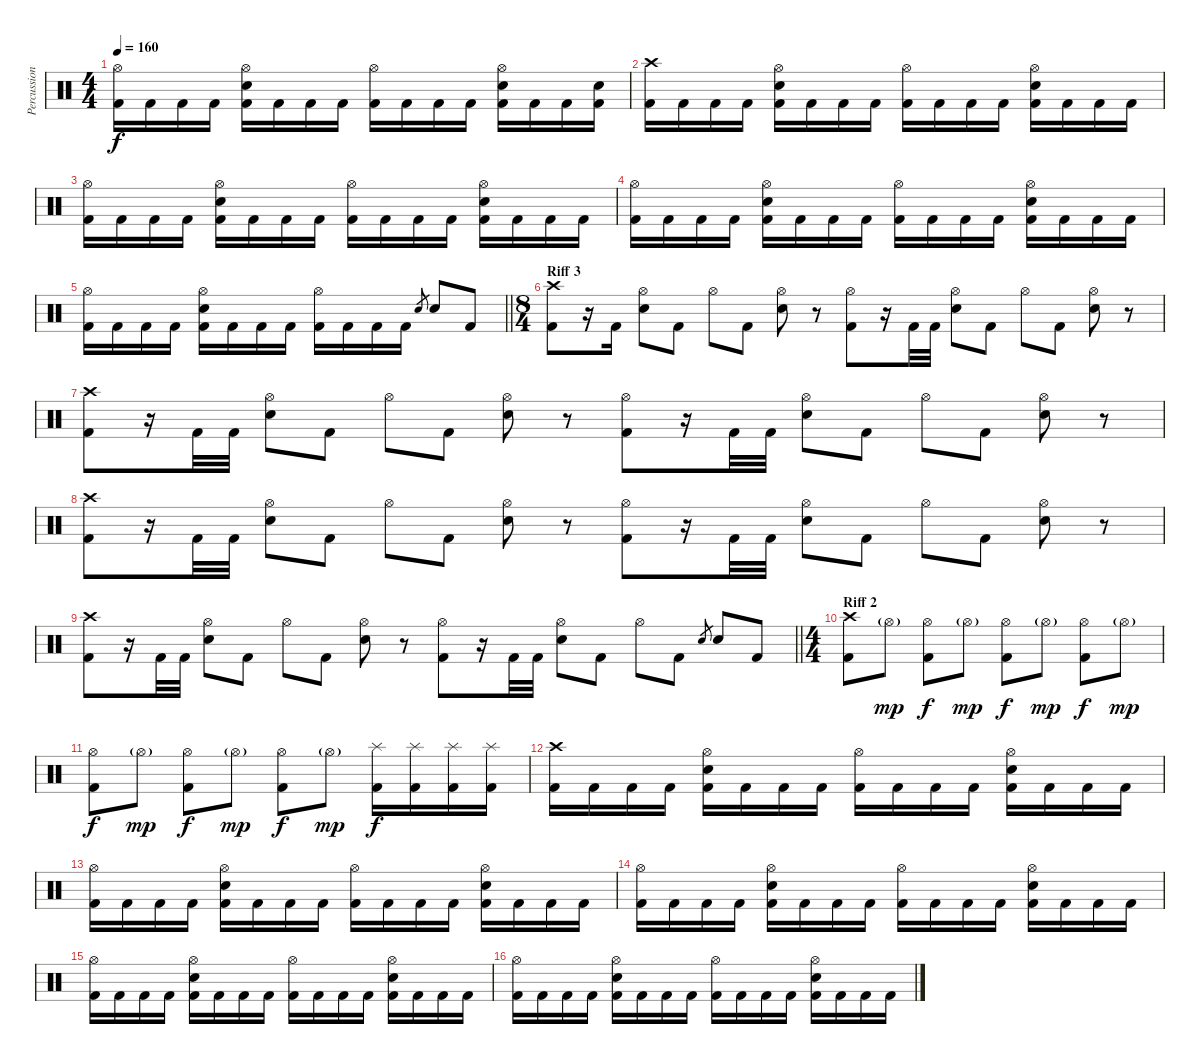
\track ("Percussion" "Percussion") {instrument percussion}
\staff {score}
\articulation defaults
\ts (4 4)
\tempo 160
\clef neutral
\ks c
("Hi-Hat (open)" "Kick (hit) 2").16{dy f} "Kick (hit) 2".16 "Kick (hit) 2".16 "Kick (hit) 2".16 ("Hi-Hat (open)" "Snare (hit) 2" "Kick (hit) 2").16 "Kick (hit) 2".16 "Kick (hit) 2".16 "Kick (hit) 2".16 ("Hi-Hat (open)" "Kick (hit) 2").16 "Kick (hit) 2".16 "Kick (hit) 2".16 "Kick (hit) 2".16 ("Hi-Hat (open)" "Snare (hit) 2" "Kick (hit) 2").16 "Kick (hit) 2".16 "Kick (hit) 2".16 ("Snare (hit) 2" "Kick (hit) 2").16 |
("Crash high (hit)" "Kick (hit) 2").16 "Kick (hit) 2".16 "Kick (hit) 2".16 "Kick (hit) 2".16 ("Hi-Hat (open)" "Snare (hit) 2" "Kick (hit) 2").16 "Kick (hit) 2".16 "Kick (hit) 2".16 "Kick (hit) 2".16 ("Hi-Hat (open)" "Kick (hit) 2").16 "Kick (hit) 2".16 "Kick (hit) 2".16 "Kick (hit) 2".16 ("Hi-Hat (open)" "Snare (hit) 2" "Kick (hit) 2").16 "Kick (hit) 2".16 "Kick (hit) 2".16 "Kick (hit) 2".16 |
("Hi-Hat (open)" "Kick (hit) 2").16 "Kick (hit) 2".16 "Kick (hit) 2".16 "Kick (hit) 2".16 ("Hi-Hat (open)" "Snare (hit) 2" "Kick (hit) 2").16 "Kick (hit) 2".16 "Kick (hit) 2".16 "Kick (hit) 2".16 ("Hi-Hat (open)" "Kick (hit) 2").16 "Kick (hit) 2".16 "Kick (hit) 2".16 "Kick (hit) 2".16 ("Hi-Hat (open)" "Snare (hit) 2" "Kick (hit) 2").16 "Kick (hit) 2".16 "Kick (hit) 2".16 "Kick (hit) 2".16 |
("Hi-Hat (open)" "Kick (hit) 2").16 "Kick (hit) 2".16 "Kick (hit) 2".16 "Kick (hit) 2".16 ("Hi-Hat (open)" "Snare (hit) 2" "Kick (hit) 2").16 "Kick (hit) 2".16 "Kick (hit) 2".16 "Kick (hit) 2".16 ("Hi-Hat (open)" "Kick (hit) 2").16 "Kick (hit) 2".16 "Kick (hit) 2".16 "Kick (hit) 2".16 ("Hi-Hat (open)" "Snare (hit) 2" "Kick (hit) 2").16 "Kick (hit) 2".16 "Kick (hit) 2".16 "Kick (hit) 2".16 |
\barLineRight lightlight
("Hi-Hat (open)" "Kick (hit) 2").16 "Kick (hit) 2".16 "Kick (hit) 2".16 "Kick (hit) 2".16 ("Hi-Hat (open)" "Snare (hit) 2" "Kick (hit) 2").16 "Kick (hit) 2".16 "Kick (hit) 2".16 "Kick (hit) 2".16 ("Hi-Hat (open)" "Kick (hit) 2").16 "Kick (hit) 2".16 "Kick (hit) 2".16 "Kick (hit) 2".16 "Snare (hit) 2".8{gr} "Snare (hit) 2".8 "Kick (hit) 2".8 |
\ts (8 4)
\section ("" "Riff 3")
("Kick (hit) 2" "Crash high (hit)").8 r.16 "Kick (hit) 2".16 ("Snare (hit) 2" "Hi-Hat (open)").8 "Kick (hit) 2".8 "Hi-Hat (open)".8 "Kick (hit) 2".8 ("Snare (hit) 2" "Hi-Hat (open)").8 r.8 ("Kick (hit) 2" "Hi-Hat (open)").8 r.16 "Kick (hit) 2".32 "Kick (hit) 2".32 ("Snare (hit) 2" "Hi-Hat (open)").8 "Kick (hit) 2".8 "Hi-Hat (open)".8 "Kick (hit) 2".8 ("Hi-Hat (open)" "Snare (hit) 2").8 r.8 |
("Kick (hit) 2" "Crash high (hit)").8 r.16 "Kick (hit) 2".32 "Kick (hit) 2".32 ("Snare (hit) 2" "Hi-Hat (open)").8 "Kick (hit) 2".8 "Hi-Hat (open)".8 "Kick (hit) 2".8 ("Snare (hit) 2" "Hi-Hat (open)").8 r.8 ("Kick (hit) 2" "Hi-Hat (open)").8 r.16 "Kick (hit) 2".32 "Kick (hit) 2".32 ("Snare (hit) 2" "Hi-Hat (open)").8 "Kick (hit) 2".8 "Hi-Hat (open)".8 "Kick (hit) 2".8 ("Hi-Hat (open)" "Snare (hit) 2").8 r.8 |
("Kick (hit) 2" "Crash high (hit)").8 r.16 "Kick (hit) 2".32 "Kick (hit) 2".32 ("Snare (hit) 2" "Hi-Hat (open)").8 "Kick (hit) 2".8 "Hi-Hat (open)".8 "Kick (hit) 2".8 ("Snare (hit) 2" "Hi-Hat (open)").8 r.8 ("Kick (hit) 2" "Hi-Hat (open)").8 r.16 "Kick (hit) 2".32 "Kick (hit) 2".32 ("Snare (hit) 2" "Hi-Hat (open)").8 "Kick (hit) 2".8 "Hi-Hat (open)".8 "Kick (hit) 2".8 ("Hi-Hat (open)" "Snare (hit) 2").8 r.8 |
\barLineRight lightlight
("Kick (hit) 2" "Crash high (hit)").8 r.16 "Kick (hit) 2".32 "Kick (hit) 2".32 ("Snare (hit) 2" "Hi-Hat (open)").8 "Kick (hit) 2".8 "Hi-Hat (open)".8 "Kick (hit) 2".8 ("Snare (hit) 2" "Hi-Hat (open)").8 r.8 ("Kick (hit) 2" "Hi-Hat (open)").8 r.16 "Kick (hit) 2".32 "Kick (hit) 2".32 ("Snare (hit) 2" "Hi-Hat (open)").8 "Kick (hit) 2".8 "Hi-Hat (open)".8 "Kick (hit) 2".8 "Snare (hit) 2".8{gr} "Snare (hit) 2".8 "Kick (hit) 2".8 |
\ts (4 4)
\section ("" "Riff 2")
("Crash high (hit)" "Kick (hit) 2").8 "Hi-Hat (open)"{g}.8{dy mp} ("Hi-Hat (open)" "Kick (hit) 2").8{dy f} "Hi-Hat (open)"{g}.8{dy mp} ("Hi-Hat (open)" "Kick (hit) 2").8{dy f} "Hi-Hat (open)"{g}.8{dy mp} ("Hi-Hat (open)" "Kick (hit) 2").8{dy f} "Hi-Hat (open)"{g}.8{dy mp} |
("Hi-Hat (open)" "Kick (hit) 2").8{dy f} "Hi-Hat (open)"{g}.8{dy mp} ("Hi-Hat (open)" "Kick (hit) 2").8{dy f} "Hi-Hat (open)"{g}.8{dy mp} ("Hi-Hat (open)" "Kick (hit) 2").8{dy f} "Hi-Hat (open)"{g}.8{dy mp} ("Kick (hit) 2" "Splash (hit)").16{dy f} ("Kick (hit) 2" "Splash (hit)").16 ("Kick (hit) 2" "Splash (hit)").16 ("Kick (hit) 2" "Splash (hit)").16 |
("Crash high (hit)" "Kick (hit) 2").16 "Kick (hit) 2".16 "Kick (hit) 2".16 "Kick (hit) 2".16 ("Hi-Hat (open)" "Snare (hit) 2" "Kick (hit) 2").16 "Kick (hit) 2".16 "Kick (hit) 2".16 "Kick (hit) 2".16 ("Hi-Hat (open)" "Kick (hit) 2").16 "Kick (hit) 2".16 "Kick (hit) 2".16 "Kick (hit) 2".16 ("Hi-Hat (open)" "Snare (hit) 2" "Kick (hit) 2").16 "Kick (hit) 2".16 "Kick (hit) 2".16 "Kick (hit) 2".16 |
("Hi-Hat (open)" "Kick (hit) 2").16 "Kick (hit) 2".16 "Kick (hit) 2".16 "Kick (hit) 2".16 ("Hi-Hat (open)" "Snare (hit) 2" "Kick (hit) 2").16 "Kick (hit) 2".16 "Kick (hit) 2".16 "Kick (hit) 2".16 ("Hi-Hat (open)" "Kick (hit) 2").16 "Kick (hit) 2".16 "Kick (hit) 2".16 "Kick (hit) 2".16 ("Hi-Hat (open)" "Snare (hit) 2" "Kick (hit) 2").16 "Kick (hit) 2".16 "Kick (hit) 2".16 "Kick (hit) 2".16 |
("Hi-Hat (open)" "Kick (hit) 2").16 "Kick (hit) 2".16 "Kick (hit) 2".16 "Kick (hit) 2".16 ("Hi-Hat (open)" "Snare (hit) 2" "Kick (hit) 2").16 "Kick (hit) 2".16 "Kick (hit) 2".16 "Kick (hit) 2".16 ("Hi-Hat (open)" "Kick (hit) 2").16 "Kick (hit) 2".16 "Kick (hit) 2".16 "Kick (hit) 2".16 ("Hi-Hat (open)" "Snare (hit) 2" "Kick (hit) 2").16 "Kick (hit) 2".16 "Kick (hit) 2".16 "Kick (hit) 2".16 |
("Hi-Hat (open)" "Kick (hit) 2").16 "Kick (hit) 2".16 "Kick (hit) 2".16 "Kick (hit) 2".16 ("Hi-Hat (open)" "Snare (hit) 2" "Kick (hit) 2").16 "Kick (hit) 2".16 "Kick (hit) 2".16 "Kick (hit) 2".16 ("Hi-Hat (open)" "Kick (hit) 2").16 "Kick (hit) 2".16 "Kick (hit) 2".16 "Kick (hit) 2".16 ("Hi-Hat (open)" "Snare (hit) 2" "Kick (hit) 2").16 "Kick (hit) 2".16 "Kick (hit) 2".16 "Kick (hit) 2".16 |
("Hi-Hat (open)" "Kick (hit) 2").16 "Kick (hit) 2".16 "Kick (hit) 2".16 "Kick (hit) 2".16 ("Hi-Hat (open)" "Snare (hit) 2" "Kick (hit) 2").16 "Kick (hit) 2".16 "Kick (hit) 2".16 "Kick (hit) 2".16 ("Hi-Hat (open)" "Kick (hit) 2").16 "Kick (hit) 2".16 "Kick (hit) 2".16 "Kick (hit) 2".16 ("Hi-Hat (open)" "Snare (hit) 2" "Kick (hit) 2").16 "Kick (hit) 2".16 "Kick (hit) 2".16 "Kick (hit) 2".16
